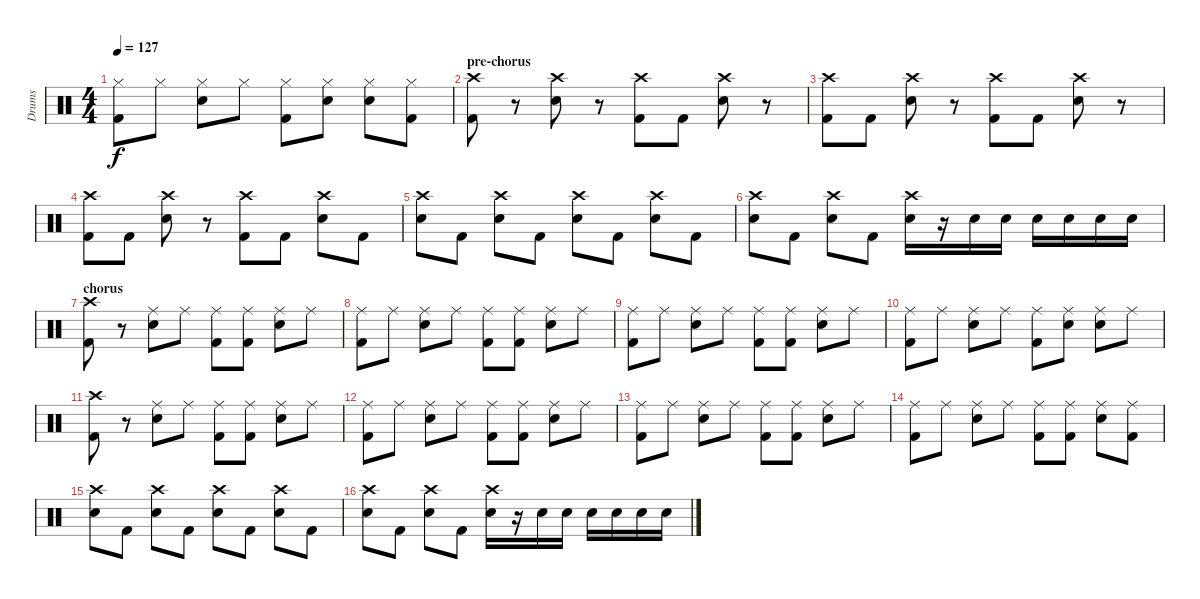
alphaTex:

\track ("Drums" "Drums") {instrument percussion}
\staff {score}
\articulation defaults
\ts (4 4)
\tempo 127
\clef neutral
\ks c
("Hi-Hat (closed)" "Kick (hit) 2").8{dy f} "Hi-Hat (closed)".8 ("Hi-Hat (closed)" "Snare (hit) 2").8 "Hi-Hat (closed)".8 ("Hi-Hat (closed)" "Kick (hit) 2").8 ("Hi-Hat (closed)" "Snare (hit) 2").8 ("Hi-Hat (closed)" "Snare (hit) 2").8 ("Hi-Hat (closed)" "Kick (hit) 2").8 |
\section ("" "pre-chorus")
("Crash high (hit)" "Kick (hit) 2").8 r.8 ("Crash high (hit)" "Snare (hit) 2").8 r.8 ("Crash high (hit)" "Kick (hit) 2").8 "Kick (hit) 2".8 ("Crash high (hit)" "Snare (hit) 2").8 r.8 |
("Crash high (hit)" "Kick (hit) 2").8 "Kick (hit) 2".8 ("Crash high (hit)" "Snare (hit) 2").8 r.8 ("Crash high (hit)" "Kick (hit) 2").8 "Kick (hit) 2".8 ("Crash high (hit)" "Snare (hit) 2").8 r.8 |
("Crash high (hit)" "Kick (hit) 2").8 "Kick (hit) 2".8 ("Crash high (hit)" "Snare (hit) 2").8 r.8 ("Crash high (hit)" "Kick (hit) 2").8 "Kick (hit) 2".8 ("Crash high (hit)" "Snare (hit) 2").8 "Kick (hit) 2".8 |
("Crash high (hit)" "Snare (hit) 2").8 "Kick (hit) 2".8 ("Crash high (hit)" "Snare (hit) 2").8 "Kick (hit) 2".8 ("Crash high (hit)" "Snare (hit) 2").8 "Kick (hit) 2".8 ("Crash high (hit)" "Snare (hit) 2").8 "Kick (hit) 2".8 |
("Crash high (hit)" "Snare (hit) 2").8 "Kick (hit) 2".8 ("Crash high (hit)" "Snare (hit) 2").8 "Kick (hit) 2".8 ("Crash high (hit)" "Snare (hit) 2").16 r.16 "Snare (hit) 2".16 "Snare (hit) 2".16 "Snare (hit) 2".16 "Snare (hit) 2".16 "Snare (hit) 2".16 "Snare (hit) 2".16 |
\section ("" "chorus")
("Crash high (hit)" "Kick (hit) 2").8 r.8 ("Ride (middle)" "Snare (hit) 2").8 "Ride (middle)".8 ("Ride (middle)" "Kick (hit) 2").8 ("Ride (middle)" "Kick (hit) 2").8 ("Ride (middle)" "Snare (hit) 2").8 "Ride (middle)".8 |
("Ride (middle)" "Kick (hit) 2").8 "Ride (middle)".8 ("Ride (middle)" "Snare (hit) 2").8 "Ride (middle)".8 ("Ride (middle)" "Kick (hit) 2").8 ("Ride (middle)" "Kick (hit) 2").8 ("Ride (middle)" "Snare (hit) 2").8 "Ride (middle)".8 |
("Ride (middle)" "Kick (hit) 2").8 "Ride (middle)".8 ("Ride (middle)" "Snare (hit) 2").8 "Ride (middle)".8 ("Ride (middle)" "Kick (hit) 2").8 ("Ride (middle)" "Kick (hit) 2").8 ("Ride (middle)" "Snare (hit) 2").8 "Ride (middle)".8 |
("Ride (middle)" "Kick (hit) 2").8 "Ride (middle)".8 ("Ride (middle)" "Snare (hit) 2").8 "Ride (middle)".8 ("Ride (middle)" "Kick (hit) 2").8 ("Ride (middle)" "Snare (hit) 2").8 ("Ride (middle)" "Snare (hit) 2").8 "Ride (middle)".8 |
("Crash high (hit)" "Kick (hit) 2").8 r.8 ("Ride (middle)" "Snare (hit) 2").8 "Ride (middle)".8 ("Ride (middle)" "Kick (hit) 2").8 ("Ride (middle)" "Kick (hit) 2").8 ("Ride (middle)" "Snare (hit) 2").8 "Ride (middle)".8 |
("Ride (middle)" "Kick (hit) 2").8 "Ride (middle)".8 ("Ride (middle)" "Snare (hit) 2").8 "Ride (middle)".8 ("Ride (middle)" "Kick (hit) 2").8 ("Ride (middle)" "Kick (hit) 2").8 ("Ride (middle)" "Snare (hit) 2").8 "Ride (middle)".8 |
("Ride (middle)" "Kick (hit) 2").8 "Ride (middle)".8 ("Ride (middle)" "Snare (hit) 2").8 "Ride (middle)".8 ("Ride (middle)" "Kick (hit) 2").8 ("Ride (middle)" "Kick (hit) 2").8 ("Ride (middle)" "Snare (hit) 2").8 "Ride (middle)".8 |
("Ride (middle)" "Kick (hit) 2").8 "Ride (middle)".8 ("Ride (middle)" "Snare (hit) 2").8 "Ride (middle)".8 ("Ride (middle)" "Kick (hit) 2").8 ("Ride (middle)" "Kick (hit) 2").8 ("Ride (middle)" "Snare (hit) 2").8 ("Ride (middle)" "Kick (hit) 2").8 |
("Crash high (hit)" "Snare (hit) 2").8 "Kick (hit) 2".8 ("Crash high (hit)" "Snare (hit) 2").8 "Kick (hit) 2".8 ("Crash high (hit)" "Snare (hit) 2").8 "Kick (hit) 2".8 ("Crash high (hit)" "Snare (hit) 2").8 "Kick (hit) 2".8 |
("Crash high (hit)" "Snare (hit) 2").8 "Kick (hit) 2".8 ("Crash high (hit)" "Snare (hit) 2").8 "Kick (hit) 2".8 ("Crash high (hit)" "Snare (hit) 2").16 r.16 "Snare (hit) 2".16 "Snare (hit) 2".16 "Snare (hit) 2".16 "Snare (hit) 2".16 "Snare (hit) 2".16 "Snare (hit) 2".16
